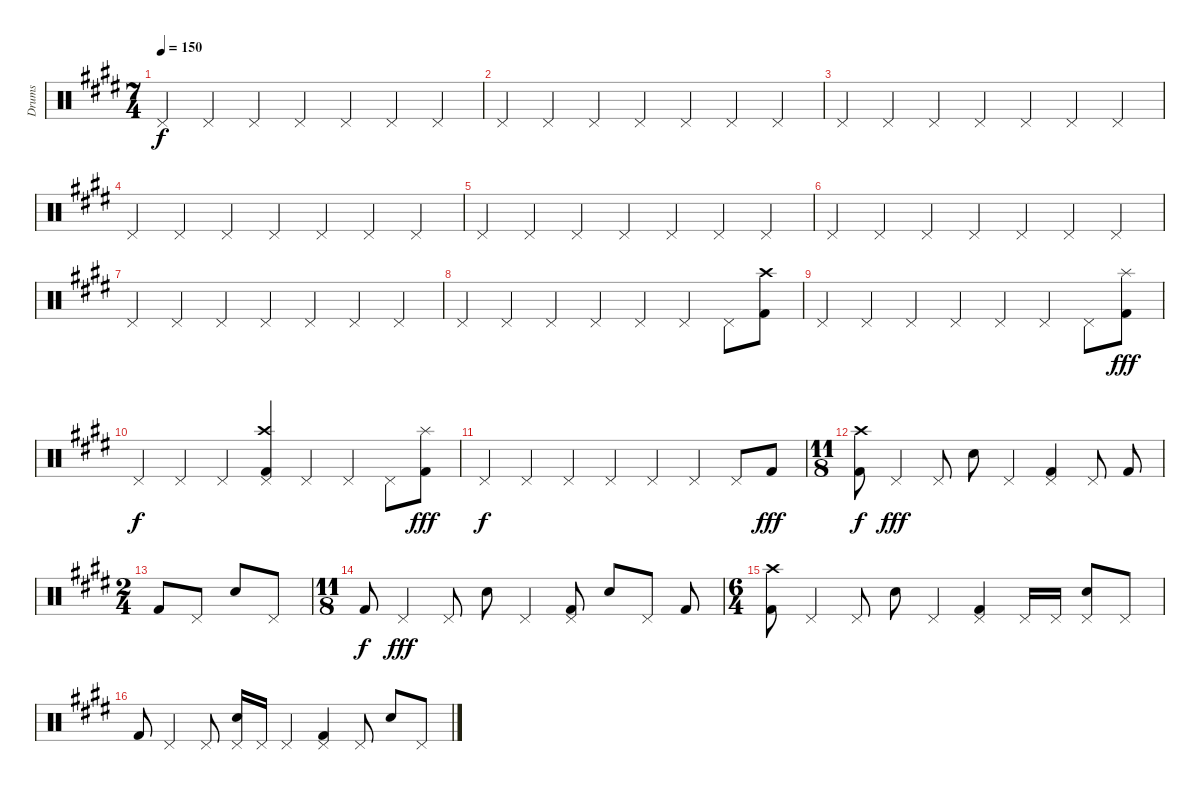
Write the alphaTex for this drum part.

\track ("Drums" "Drums") {instrument percussion}
\staff {score}
\articulation defaults
\ts (7 4)
\section ("" "")
\tempo 150
\clef neutral
\ks e "Pedal Hi-Hat (hit)".4{dy f} "Pedal Hi-Hat (hit)".4 "Pedal Hi-Hat (hit)".4 "Pedal Hi-Hat (hit)".4 "Pedal Hi-Hat (hit)".4 "Pedal Hi-Hat (hit)".4 "Pedal Hi-Hat (hit)".4
|
"Pedal Hi-Hat (hit)".4 "Pedal Hi-Hat (hit)".4 "Pedal Hi-Hat (hit)".4 "Pedal Hi-Hat (hit)".4 "Pedal Hi-Hat (hit)".4 "Pedal Hi-Hat (hit)".4 "Pedal Hi-Hat (hit)".4 |
"Pedal Hi-Hat (hit)".4{volume 7} "Pedal Hi-Hat (hit)".4 "Pedal Hi-Hat (hit)".4 "Pedal Hi-Hat (hit)".4 "Pedal Hi-Hat (hit)".4 "Pedal Hi-Hat (hit)".4 "Pedal Hi-Hat (hit)".4 |
"Pedal Hi-Hat (hit)".4{volume 8} "Pedal Hi-Hat (hit)".4 "Pedal Hi-Hat (hit)".4 "Pedal Hi-Hat (hit)".4 "Pedal Hi-Hat (hit)".4 "Pedal Hi-Hat (hit)".4 "Pedal Hi-Hat (hit)".4 |
"Pedal Hi-Hat (hit)".4{volume 9} "Pedal Hi-Hat (hit)".4 "Pedal Hi-Hat (hit)".4 "Pedal Hi-Hat (hit)".4 "Pedal Hi-Hat (hit)".4 "Pedal Hi-Hat (hit)".4 "Pedal Hi-Hat (hit)".4 |
"Pedal Hi-Hat (hit)".4 "Pedal Hi-Hat (hit)".4 "Pedal Hi-Hat (hit)".4 "Pedal Hi-Hat (hit)".4 "Pedal Hi-Hat (hit)".4 "Pedal Hi-Hat (hit)".4 "Pedal Hi-Hat (hit)".4 |
"Pedal Hi-Hat (hit)".4{volume 10} "Pedal Hi-Hat (hit)".4 "Pedal Hi-Hat (hit)".4 "Pedal Hi-Hat (hit)".4 "Pedal Hi-Hat (hit)".4 "Pedal Hi-Hat (hit)".4 "Pedal Hi-Hat (hit)".4 |
"Pedal Hi-Hat (hit)".4{volume 11} "Pedal Hi-Hat (hit)".4 "Pedal Hi-Hat (hit)".4 "Pedal Hi-Hat (hit)".4 "Pedal Hi-Hat (hit)".4 "Pedal Hi-Hat (hit)".4 "Pedal Hi-Hat (hit)".8 ("Crash high (hit)" "Kick (hit) 2").8 |
"Pedal Hi-Hat (hit)".4{volume 12} "Pedal Hi-Hat (hit)".4 "Pedal Hi-Hat (hit)".4 "Pedal Hi-Hat (hit)".4 "Pedal Hi-Hat (hit)".4 "Pedal Hi-Hat (hit)".4 "Pedal Hi-Hat (hit)".8 ("Splash (hit)" "Kick (hit) 2").8{dy fff} |
"Pedal Hi-Hat (hit)".4{dy f volume 13} "Pedal Hi-Hat (hit)".4 "Pedal Hi-Hat (hit)".4 ("Pedal Hi-Hat (hit)" "Crash high (hit)" "Kick (hit) 2").4 "Pedal Hi-Hat (hit)".4 "Pedal Hi-Hat (hit)".4 "Pedal Hi-Hat (hit)".8 ("Splash (hit)" "Kick (hit) 2").8{dy fff} |
"Pedal Hi-Hat (hit)".4{dy f} "Pedal Hi-Hat (hit)".4 "Pedal Hi-Hat (hit)".4 "Pedal Hi-Hat (hit)".4 "Pedal Hi-Hat (hit)".4 "Pedal Hi-Hat (hit)".4 "Pedal Hi-Hat (hit)".8 "Kick (hit) 2".8{dy fff} |
\ts (11 8)
\section ("" "")
("Crash high (hit)" "Kick (hit) 2").8{dy f} "Pedal Hi-Hat (hit)".4{dy fff} "Pedal Hi-Hat (hit)".8 "Electric Snare (hit)".8 "Pedal Hi-Hat (hit)".4 ("Pedal Hi-Hat (hit)" "Kick (hit) 2").4 "Pedal Hi-Hat (hit)".8 "Kick (hit) 2".8 |
\ts (2 4)
"Kick (hit) 2".8 "Pedal Hi-Hat (hit)".8 "Electric Snare (hit)".8 "Pedal Hi-Hat (hit)".8 |
\ts (11 8)
"Kick (hit) 2".8{dy f} "Pedal Hi-Hat (hit)".4{dy fff} "Pedal Hi-Hat (hit)".8 "Electric Snare (hit)".8 "Pedal Hi-Hat (hit)".4 ("Pedal Hi-Hat (hit)" "Kick (hit) 2").8 "Electric Snare (hit)".8 "Pedal Hi-Hat (hit)".8 "Kick (hit) 2".8 |
\ts (6 4)
("Crash high (hit)" "Kick (hit) 2").8 "Pedal Hi-Hat (hit)".4 "Pedal Hi-Hat (hit)".8 "Electric Snare (hit)".8 "Pedal Hi-Hat (hit)".4 ("Pedal Hi-Hat (hit)" "Kick (hit) 2").4 "Pedal Hi-Hat (hit)".16 "Pedal Hi-Hat (hit)".16 ("Pedal Hi-Hat (hit)" "Electric Snare (hit)").8 "Pedal Hi-Hat (hit)".8 |
"Kick (hit) 2".8 "Pedal Hi-Hat (hit)".4 "Pedal Hi-Hat (hit)".8 ("Pedal Hi-Hat (hit)" "Electric Snare (hit)").16 "Pedal Hi-Hat (hit)".16 "Pedal Hi-Hat (hit)".4 ("Pedal Hi-Hat (hit)" "Kick (hit) 2").4 "Pedal Hi-Hat (hit)".8 "Electric Snare (hit)".8 "Pedal Hi-Hat (hit)".8
